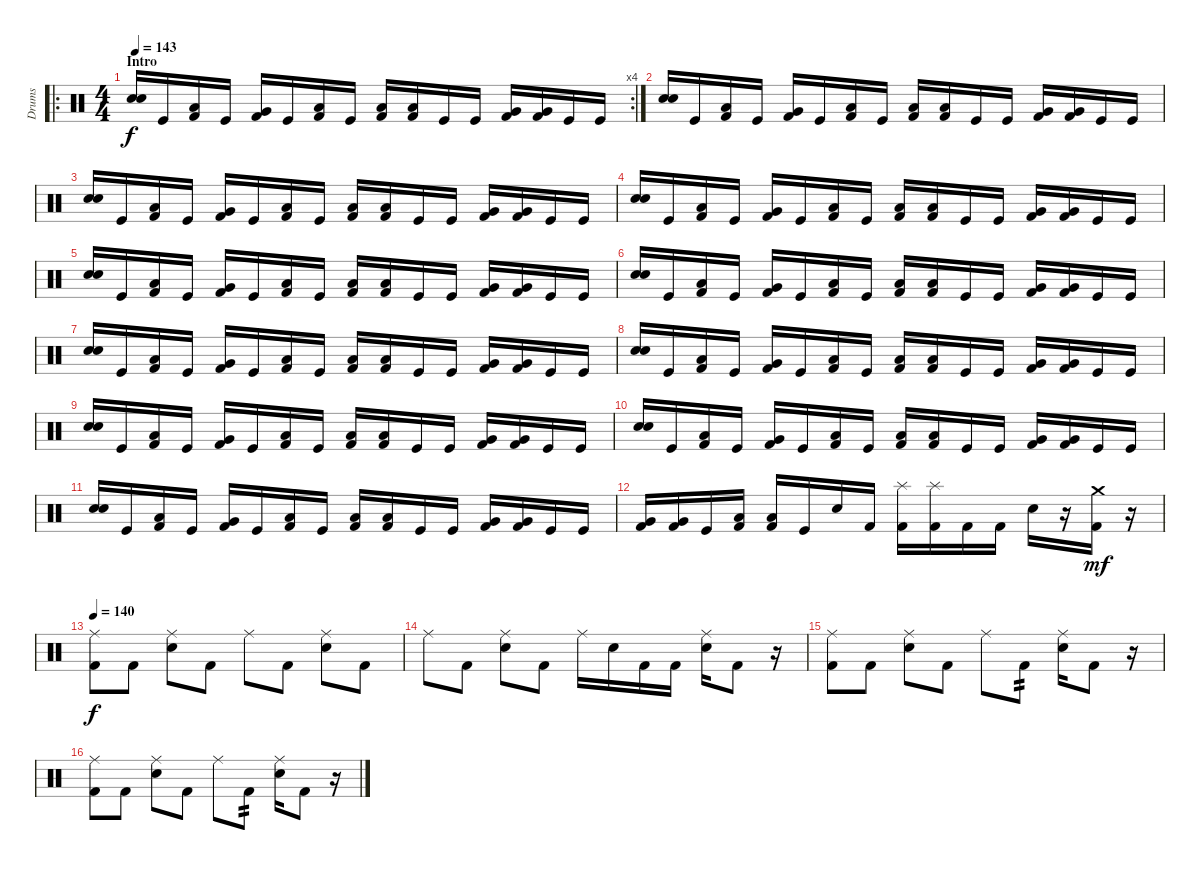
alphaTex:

\track ("Drums" "Drums") {instrument percussion}
\staff {score}
\articulation defaults
\ro
\rc 4
\ts (4 4)
\section ("" "Intro")
\tempo 143
\clef neutral
\ks c
("Electric Snare (hit)" "Electric Snare (hit)").16{dy f} "Kick (hit)".16 ("Low Tom (hit)" "Kick (hit) 2").16 "Kick (hit)".16 ("Very Low Tom (hit)" "Kick (hit) 2").16 "Kick (hit)".16 ("Low Floor Tom (hit)" "Kick (hit) 2").16 "Kick (hit)".16 ("Low Tom (hit)" "Kick (hit) 2").16 ("Low Tom (hit)" "Kick (hit) 2").16 "Kick (hit)".16 "Kick (hit)".16 ("Very Low Tom (hit)" "Kick (hit) 2").16 ("Very Low Tom (hit)" "Kick (hit) 2").16 "Kick (hit)".16 "Kick (hit)".16 |
("Electric Snare (hit)" "Electric Snare (hit)").16 "Kick (hit)".16 ("Low Tom (hit)" "Kick (hit) 2").16 "Kick (hit)".16 ("Very Low Tom (hit)" "Kick (hit) 2").16 "Kick (hit)".16 ("Low Floor Tom (hit)" "Kick (hit) 2").16 "Kick (hit)".16 ("Low Tom (hit)" "Kick (hit) 2").16 ("Low Tom (hit)" "Kick (hit) 2").16 "Kick (hit)".16 "Kick (hit)".16 ("Very Low Tom (hit)" "Kick (hit) 2").16 ("Very Low Tom (hit)" "Kick (hit) 2").16 "Kick (hit)".16 "Kick (hit)".16 |
("Electric Snare (hit)" "Electric Snare (hit)").16 "Kick (hit)".16 ("Low Tom (hit)" "Kick (hit) 2").16 "Kick (hit)".16 ("Very Low Tom (hit)" "Kick (hit) 2").16 "Kick (hit)".16 ("Low Floor Tom (hit)" "Kick (hit) 2").16 "Kick (hit)".16 ("Low Tom (hit)" "Kick (hit) 2").16 ("Low Tom (hit)" "Kick (hit) 2").16 "Kick (hit)".16 "Kick (hit)".16 ("Very Low Tom (hit)" "Kick (hit) 2").16 ("Very Low Tom (hit)" "Kick (hit) 2").16 "Kick (hit)".16 "Kick (hit)".16 |
("Electric Snare (hit)" "Electric Snare (hit)").16 "Kick (hit)".16 ("Low Tom (hit)" "Kick (hit) 2").16 "Kick (hit)".16 ("Very Low Tom (hit)" "Kick (hit) 2").16 "Kick (hit)".16 ("Low Floor Tom (hit)" "Kick (hit) 2").16 "Kick (hit)".16 ("Low Tom (hit)" "Kick (hit) 2").16 ("Low Tom (hit)" "Kick (hit) 2").16 "Kick (hit)".16 "Kick (hit)".16 ("Very Low Tom (hit)" "Kick (hit) 2").16 ("Very Low Tom (hit)" "Kick (hit) 2").16 "Kick (hit)".16 "Kick (hit)".16 |
("Electric Snare (hit)" "Electric Snare (hit)").16 "Kick (hit)".16 ("Low Tom (hit)" "Kick (hit) 2").16 "Kick (hit)".16 ("Very Low Tom (hit)" "Kick (hit) 2").16 "Kick (hit)".16 ("Low Floor Tom (hit)" "Kick (hit) 2").16 "Kick (hit)".16 ("Low Tom (hit)" "Kick (hit) 2").16 ("Low Tom (hit)" "Kick (hit) 2").16 "Kick (hit)".16 "Kick (hit)".16 ("Very Low Tom (hit)" "Kick (hit) 2").16 ("Very Low Tom (hit)" "Kick (hit) 2").16 "Kick (hit)".16 "Kick (hit)".16 |
("Electric Snare (hit)" "Electric Snare (hit)").16 "Kick (hit)".16 ("Low Tom (hit)" "Kick (hit) 2").16 "Kick (hit)".16 ("Very Low Tom (hit)" "Kick (hit) 2").16 "Kick (hit)".16 ("Low Floor Tom (hit)" "Kick (hit) 2").16 "Kick (hit)".16 ("Low Tom (hit)" "Kick (hit) 2").16 ("Low Tom (hit)" "Kick (hit) 2").16 "Kick (hit)".16 "Kick (hit)".16 ("Very Low Tom (hit)" "Kick (hit) 2").16 ("Very Low Tom (hit)" "Kick (hit) 2").16 "Kick (hit)".16 "Kick (hit)".16 |
("Electric Snare (hit)" "Electric Snare (hit)").16 "Kick (hit)".16 ("Low Tom (hit)" "Kick (hit) 2").16 "Kick (hit)".16 ("Very Low Tom (hit)" "Kick (hit) 2").16 "Kick (hit)".16 ("Low Floor Tom (hit)" "Kick (hit) 2").16 "Kick (hit)".16 ("Low Tom (hit)" "Kick (hit) 2").16 ("Low Tom (hit)" "Kick (hit) 2").16 "Kick (hit)".16 "Kick (hit)".16 ("Very Low Tom (hit)" "Kick (hit) 2").16 ("Very Low Tom (hit)" "Kick (hit) 2").16 "Kick (hit)".16 "Kick (hit)".16 |
("Electric Snare (hit)" "Electric Snare (hit)").16 "Kick (hit)".16 ("Low Tom (hit)" "Kick (hit) 2").16 "Kick (hit)".16 ("Very Low Tom (hit)" "Kick (hit) 2").16 "Kick (hit)".16 ("Low Floor Tom (hit)" "Kick (hit) 2").16 "Kick (hit)".16 ("Low Tom (hit)" "Kick (hit) 2").16 ("Low Tom (hit)" "Kick (hit) 2").16 "Kick (hit)".16 "Kick (hit)".16 ("Very Low Tom (hit)" "Kick (hit) 2").16 ("Very Low Tom (hit)" "Kick (hit) 2").16 "Kick (hit)".16 "Kick (hit)".16 |
("Electric Snare (hit)" "Electric Snare (hit)").16 "Kick (hit)".16 ("Low Tom (hit)" "Kick (hit) 2").16 "Kick (hit)".16 ("Very Low Tom (hit)" "Kick (hit) 2").16 "Kick (hit)".16 ("Low Floor Tom (hit)" "Kick (hit) 2").16 "Kick (hit)".16 ("Low Tom (hit)" "Kick (hit) 2").16 ("Low Tom (hit)" "Kick (hit) 2").16 "Kick (hit)".16 "Kick (hit)".16 ("Very Low Tom (hit)" "Kick (hit) 2").16 ("Very Low Tom (hit)" "Kick (hit) 2").16 "Kick (hit)".16 "Kick (hit)".16 |
("Electric Snare (hit)" "Electric Snare (hit)").16 "Kick (hit)".16 ("Low Tom (hit)" "Kick (hit) 2").16 "Kick (hit)".16 ("Very Low Tom (hit)" "Kick (hit) 2").16 "Kick (hit)".16 ("Low Floor Tom (hit)" "Kick (hit) 2").16 "Kick (hit)".16 ("Low Tom (hit)" "Kick (hit) 2").16 ("Low Tom (hit)" "Kick (hit) 2").16 "Kick (hit)".16 "Kick (hit)".16 ("Very Low Tom (hit)" "Kick (hit) 2").16 ("Very Low Tom (hit)" "Kick (hit) 2").16 "Kick (hit)".16 "Kick (hit)".16 |
("Electric Snare (hit)" "Electric Snare (hit)").16 "Kick (hit)".16 ("Low Tom (hit)" "Kick (hit) 2").16 "Kick (hit)".16 ("Very Low Tom (hit)" "Kick (hit) 2").16 "Kick (hit)".16 ("Low Floor Tom (hit)" "Kick (hit) 2").16 "Kick (hit)".16 ("Low Tom (hit)" "Kick (hit) 2").16 ("Low Tom (hit)" "Kick (hit) 2").16 "Kick (hit)".16 "Kick (hit)".16 ("Very Low Tom (hit)" "Kick (hit) 2").16 ("Very Low Tom (hit)" "Kick (hit) 2").16 "Kick (hit)".16 "Kick (hit)".16 |
("Very Low Tom (hit)" "Kick (hit) 2").16 ("Very Low Tom (hit)" "Kick (hit) 2").16 "Kick (hit)".16 ("Low Floor Tom (hit)" "Kick (hit) 2").16 ("Low Floor Tom (hit)" "Kick (hit) 2").16 "Kick (hit)".16 "Electric Snare (hit)".16 "Kick (hit) 2".16 ("Splash (hit)" "Kick (hit) 2").16 ("Splash (hit)" "Kick (hit) 2").16 "Kick (hit) 2".16 "Kick (hit) 2".16 "Electric Snare (hit)".16 r.16 ("Crash medium (hit)" "Kick (hit) 2").16{dy mf} r.16 |
\tempo 140
("Ride (middle)" "Kick (hit) 2").8{dy f} "Kick (hit) 2".8 ("Ride (middle)" "Electric Snare (hit)").8 "Kick (hit) 2".8 "Ride (middle)".8 "Kick (hit) 2".8 ("Ride (middle)" "Electric Snare (hit)").8 "Kick (hit) 2".8 |
"Ride (middle)".8 "Kick (hit) 2".8 ("Ride (middle)" "Electric Snare (hit)").8 "Kick (hit) 2".8 "Ride (middle)".16 "Electric Snare (hit)".16 "Kick (hit) 2".16 "Kick (hit) 2".16 ("Ride (middle)" "Electric Snare (hit)").16 "Kick (hit) 2".8 r.16 |
("Ride (middle)" "Kick (hit) 2").8 "Kick (hit) 2".8 ("Ride (middle)" "Electric Snare (hit)").8 "Kick (hit) 2".8 "Ride (middle)".8 "Kick (hit) 2".8{tp 2} ("Ride (middle)" "Electric Snare (hit)").16 "Kick (hit) 2".8 r.16 |
("Ride (middle)" "Kick (hit) 2").8 "Kick (hit) 2".8 ("Ride (middle)" "Electric Snare (hit)").8 "Kick (hit) 2".8 "Ride (middle)".8 "Kick (hit) 2".8{tp 2} ("Ride (middle)" "Electric Snare (hit)").16 "Kick (hit) 2".8 r.16
